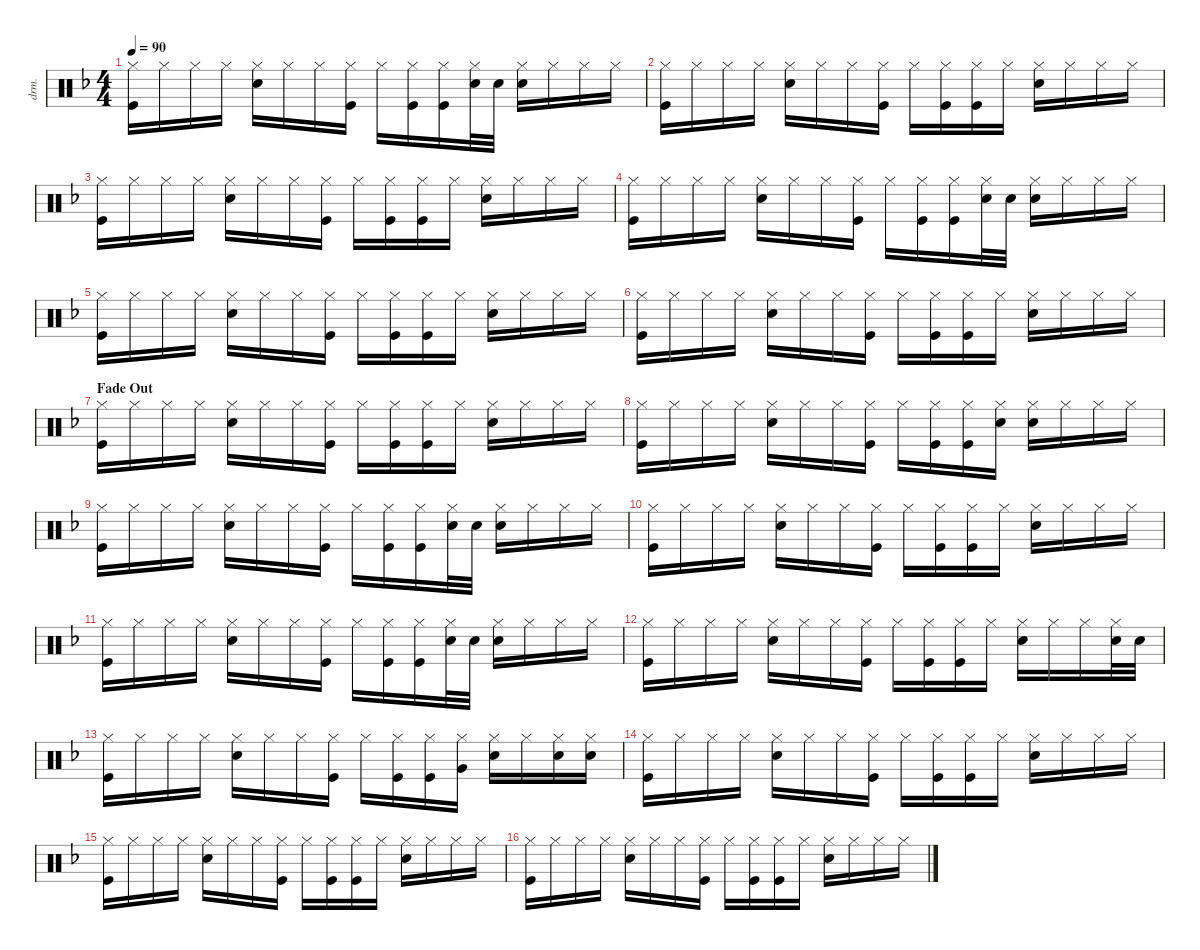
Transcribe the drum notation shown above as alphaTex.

\defaultSystemsLayout 4
\hideDynamics
\bracketExtendMode nobrackets
\track ("Drumkit" "drm.") {instrument percussion}
\staff {score}
\articulation defaults
\ts (4 4)
\tempo 90
\clef neutral
\ks f
("Hi-Hat (closed)"{acc forcenatural} "Kick (hit)"{acc forcenatural}).16{dy mf} "Hi-Hat (closed)"{acc forcenatural}.16 "Hi-Hat (closed)"{acc forcenatural}.16 "Hi-Hat (closed)"{acc forcenatural}.16 ("Hi-Hat (closed)"{acc forcenatural} "Snare (hit) 2"{acc forcenatural}).16 "Hi-Hat (closed)"{acc forcenatural}.16 "Hi-Hat (closed)"{acc forcenatural}.16 ("Hi-Hat (closed)"{acc forcenatural} "Kick (hit)"{acc forcenatural}).16 "Hi-Hat (closed)"{acc forcenatural}.16 ("Hi-Hat (closed)"{acc forcenatural} "Kick (hit)"{acc forcenatural}).16 ("Hi-Hat (closed)"{acc forcenatural} "Kick (hit)"{acc forcenatural}).16 ("Hi-Hat (closed)"{acc forcenatural} "Snare (hit) 2"{acc forcenatural}).32 "Snare (hit) 2"{acc forcenatural}.32 ("Hi-Hat (closed)"{acc forcenatural} "Snare (hit) 2"{acc forcenatural}).16 "Hi-Hat (closed)"{acc forcenatural}.16 "Hi-Hat (closed)"{acc forcenatural}.16 "Hi-Hat (closed)"{acc forcenatural}.16 |
("Hi-Hat (closed)"{acc forcenatural} "Kick (hit)"{acc forcenatural}).16 "Hi-Hat (closed)"{acc forcenatural}.16 "Hi-Hat (closed)"{acc forcenatural}.16 "Hi-Hat (closed)"{acc forcenatural}.16 ("Hi-Hat (closed)"{acc forcenatural} "Snare (hit) 2"{acc forcenatural}).16 "Hi-Hat (closed)"{acc forcenatural}.16 "Hi-Hat (closed)"{acc forcenatural}.16 ("Hi-Hat (closed)"{acc forcenatural} "Kick (hit)"{acc forcenatural}).16 "Hi-Hat (closed)"{acc forcenatural}.16 ("Hi-Hat (closed)"{acc forcenatural} "Kick (hit)"{acc forcenatural}).16 ("Hi-Hat (closed)"{acc forcenatural} "Kick (hit)"{acc forcenatural}).16 "Hi-Hat (closed)"{acc forcenatural}.16 ("Hi-Hat (closed)"{acc forcenatural} "Snare (hit) 2"{acc forcenatural}).16 "Hi-Hat (closed)"{acc forcenatural}.16 "Hi-Hat (closed)"{acc forcenatural}.16 "Hi-Hat (closed)"{acc forcenatural}.16 |
("Hi-Hat (closed)"{acc forcenatural} "Kick (hit)"{acc forcenatural}).16 "Hi-Hat (closed)"{acc forcenatural}.16 "Hi-Hat (closed)"{acc forcenatural}.16 "Hi-Hat (closed)"{acc forcenatural}.16 ("Hi-Hat (closed)"{acc forcenatural} "Snare (hit) 2"{acc forcenatural}).16 "Hi-Hat (closed)"{acc forcenatural}.16 "Hi-Hat (closed)"{acc forcenatural}.16 ("Hi-Hat (closed)"{acc forcenatural} "Kick (hit)"{acc forcenatural}).16 "Hi-Hat (closed)"{acc forcenatural}.16 ("Hi-Hat (closed)"{acc forcenatural} "Kick (hit)"{acc forcenatural}).16 ("Hi-Hat (closed)"{acc forcenatural} "Kick (hit)"{acc forcenatural}).16 "Hi-Hat (closed)"{acc forcenatural}.16 ("Hi-Hat (closed)"{acc forcenatural} "Snare (hit) 2"{acc forcenatural}).16 "Hi-Hat (closed)"{acc forcenatural}.16 "Hi-Hat (closed)"{acc forcenatural}.16 "Hi-Hat (closed)"{acc forcenatural}.16 |
("Hi-Hat (closed)"{acc forcenatural} "Kick (hit)"{acc forcenatural}).16 "Hi-Hat (closed)"{acc forcenatural}.16 "Hi-Hat (closed)"{acc forcenatural}.16 "Hi-Hat (closed)"{acc forcenatural}.16 ("Hi-Hat (closed)"{acc forcenatural} "Snare (hit) 2"{acc forcenatural}).16 "Hi-Hat (closed)"{acc forcenatural}.16 "Hi-Hat (closed)"{acc forcenatural}.16 ("Hi-Hat (closed)"{acc forcenatural} "Kick (hit)"{acc forcenatural}).16 "Hi-Hat (closed)"{acc forcenatural}.16 ("Hi-Hat (closed)"{acc forcenatural} "Kick (hit)"{acc forcenatural}).16 ("Hi-Hat (closed)"{acc forcenatural} "Kick (hit)"{acc forcenatural}).16 ("Hi-Hat (closed)"{acc forcenatural} "Snare (hit) 2"{acc forcenatural}).32 "Snare (hit) 2"{acc forcenatural}.32 ("Hi-Hat (closed)"{acc forcenatural} "Snare (hit) 2"{acc forcenatural}).16 "Hi-Hat (closed)"{acc forcenatural}.16 "Hi-Hat (closed)"{acc forcenatural}.16 "Hi-Hat (closed)"{acc forcenatural}.16 |
("Hi-Hat (closed)"{acc forcenatural} "Kick (hit)"{acc forcenatural}).16 "Hi-Hat (closed)"{acc forcenatural}.16 "Hi-Hat (closed)"{acc forcenatural}.16 "Hi-Hat (closed)"{acc forcenatural}.16 ("Hi-Hat (closed)"{acc forcenatural} "Snare (hit) 2"{acc forcenatural}).16 "Hi-Hat (closed)"{acc forcenatural}.16 "Hi-Hat (closed)"{acc forcenatural}.16 ("Hi-Hat (closed)"{acc forcenatural} "Kick (hit)"{acc forcenatural}).16 "Hi-Hat (closed)"{acc forcenatural}.16 ("Hi-Hat (closed)"{acc forcenatural} "Kick (hit)"{acc forcenatural}).16 ("Hi-Hat (closed)"{acc forcenatural} "Kick (hit)"{acc forcenatural}).16 "Hi-Hat (closed)"{acc forcenatural}.16 ("Hi-Hat (closed)"{acc forcenatural} "Snare (hit) 2"{acc forcenatural}).16 "Hi-Hat (closed)"{acc forcenatural}.16 "Hi-Hat (closed)"{acc forcenatural}.16 "Hi-Hat (closed)"{acc forcenatural}.16 |
("Hi-Hat (closed)"{acc forcenatural} "Kick (hit)"{acc forcenatural}).16 "Hi-Hat (closed)"{acc forcenatural}.16 "Hi-Hat (closed)"{acc forcenatural}.16 "Hi-Hat (closed)"{acc forcenatural}.16 ("Hi-Hat (closed)"{acc forcenatural} "Snare (hit) 2"{acc forcenatural}).16 "Hi-Hat (closed)"{acc forcenatural}.16 "Hi-Hat (closed)"{acc forcenatural}.16 ("Hi-Hat (closed)"{acc forcenatural} "Kick (hit)"{acc forcenatural}).16 "Hi-Hat (closed)"{acc forcenatural}.16 ("Hi-Hat (closed)"{acc forcenatural} "Kick (hit)"{acc forcenatural}).16 ("Hi-Hat (closed)"{acc forcenatural} "Kick (hit)"{acc forcenatural}).16 "Hi-Hat (closed)"{acc forcenatural}.16 ("Hi-Hat (closed)"{acc forcenatural} "Snare (hit) 2"{acc forcenatural}).16 "Hi-Hat (closed)"{acc forcenatural}.16 "Hi-Hat (closed)"{acc forcenatural}.16 "Hi-Hat (closed)"{acc forcenatural}.16 |
\section ("" "Fade Out")
("Hi-Hat (closed)"{acc forcenatural} "Kick (hit)"{acc forcenatural}).16 "Hi-Hat (closed)"{acc forcenatural}.16 "Hi-Hat (closed)"{acc forcenatural}.16 "Hi-Hat (closed)"{acc forcenatural}.16 ("Hi-Hat (closed)"{acc forcenatural} "Snare (hit) 2"{acc forcenatural}).16 "Hi-Hat (closed)"{acc forcenatural}.16 "Hi-Hat (closed)"{acc forcenatural}.16 ("Hi-Hat (closed)"{acc forcenatural} "Kick (hit)"{acc forcenatural}).16 "Hi-Hat (closed)"{acc forcenatural}.16 ("Hi-Hat (closed)"{acc forcenatural} "Kick (hit)"{acc forcenatural}).16 ("Hi-Hat (closed)"{acc forcenatural} "Kick (hit)"{acc forcenatural}).16 "Hi-Hat (closed)"{acc forcenatural}.16 ("Hi-Hat (closed)"{acc forcenatural} "Snare (hit) 2"{acc forcenatural}).16 "Hi-Hat (closed)"{acc forcenatural}.16 "Hi-Hat (closed)"{acc forcenatural}.16 "Hi-Hat (closed)"{acc forcenatural}.16 |
("Hi-Hat (closed)"{acc forcenatural} "Kick (hit)"{acc forcenatural}).16 "Hi-Hat (closed)"{acc forcenatural}.16 "Hi-Hat (closed)"{acc forcenatural}.16 "Hi-Hat (closed)"{acc forcenatural}.16 ("Hi-Hat (closed)"{acc forcenatural} "Snare (hit) 2"{acc forcenatural}).16 "Hi-Hat (closed)"{acc forcenatural}.16 "Hi-Hat (closed)"{acc forcenatural}.16 ("Hi-Hat (closed)"{acc forcenatural} "Kick (hit)"{acc forcenatural}).16 "Hi-Hat (closed)"{acc forcenatural}.16 ("Hi-Hat (closed)"{acc forcenatural} "Kick (hit)"{acc forcenatural}).16 ("Hi-Hat (closed)"{acc forcenatural} "Kick (hit)"{acc forcenatural}).16 ("Hi-Hat (closed)"{acc forcenatural} "Snare (hit) 2"{acc forcenatural}).16 ("Hi-Hat (closed)"{acc forcenatural} "Snare (hit) 2"{acc forcenatural}).16 "Hi-Hat (closed)"{acc forcenatural}.16 "Hi-Hat (closed)"{acc forcenatural}.16 "Hi-Hat (closed)"{acc forcenatural}.16 |
("Hi-Hat (closed)"{acc forcenatural} "Kick (hit)"{acc forcenatural}).16 "Hi-Hat (closed)"{acc forcenatural}.16 "Hi-Hat (closed)"{acc forcenatural}.16 "Hi-Hat (closed)"{acc forcenatural}.16 ("Hi-Hat (closed)"{acc forcenatural} "Snare (hit) 2"{acc forcenatural}).16 "Hi-Hat (closed)"{acc forcenatural}.16 "Hi-Hat (closed)"{acc forcenatural}.16 ("Hi-Hat (closed)"{acc forcenatural} "Kick (hit)"{acc forcenatural}).16 "Hi-Hat (closed)"{acc forcenatural}.16 ("Hi-Hat (closed)"{acc forcenatural} "Kick (hit)"{acc forcenatural}).16 ("Hi-Hat (closed)"{acc forcenatural} "Kick (hit)"{acc forcenatural}).16 ("Hi-Hat (closed)"{acc forcenatural} "Snare (hit) 2"{acc forcenatural}).32 "Snare (hit) 2"{acc forcenatural}.32 ("Hi-Hat (closed)"{acc forcenatural} "Snare (hit) 2"{acc forcenatural}).16 "Hi-Hat (closed)"{acc forcenatural}.16 "Hi-Hat (closed)"{acc forcenatural}.16 "Hi-Hat (closed)"{acc forcenatural}.16 |
("Hi-Hat (closed)"{acc forcenatural} "Kick (hit)"{acc forcenatural}).16 "Hi-Hat (closed)"{acc forcenatural}.16 "Hi-Hat (closed)"{acc forcenatural}.16 "Hi-Hat (closed)"{acc forcenatural}.16 ("Hi-Hat (closed)"{acc forcenatural} "Snare (hit) 2"{acc forcenatural}).16 "Hi-Hat (closed)"{acc forcenatural}.16 "Hi-Hat (closed)"{acc forcenatural}.16 ("Hi-Hat (closed)"{acc forcenatural} "Kick (hit)"{acc forcenatural}).16 "Hi-Hat (closed)"{acc forcenatural}.16 ("Hi-Hat (closed)"{acc forcenatural} "Kick (hit)"{acc forcenatural}).16 ("Hi-Hat (closed)"{acc forcenatural} "Kick (hit)"{acc forcenatural}).16 "Hi-Hat (closed)"{acc forcenatural}.16 ("Hi-Hat (closed)"{acc forcenatural} "Snare (hit) 2"{acc forcenatural}).16 "Hi-Hat (closed)"{acc forcenatural}.16 "Hi-Hat (closed)"{acc forcenatural}.16 "Hi-Hat (closed)"{acc forcenatural}.16 |
("Hi-Hat (closed)"{acc forcenatural} "Kick (hit)"{acc forcenatural}).16 "Hi-Hat (closed)"{acc forcenatural}.16 "Hi-Hat (closed)"{acc forcenatural}.16 "Hi-Hat (closed)"{acc forcenatural}.16 ("Hi-Hat (closed)"{acc forcenatural} "Snare (hit) 2"{acc forcenatural}).16 "Hi-Hat (closed)"{acc forcenatural}.16 "Hi-Hat (closed)"{acc forcenatural}.16 ("Hi-Hat (closed)"{acc forcenatural} "Kick (hit)"{acc forcenatural}).16 "Hi-Hat (closed)"{acc forcenatural}.16 ("Hi-Hat (closed)"{acc forcenatural} "Kick (hit)"{acc forcenatural}).16 ("Hi-Hat (closed)"{acc forcenatural} "Kick (hit)"{acc forcenatural}).16 ("Hi-Hat (closed)"{acc forcenatural} "Snare (hit) 2"{acc forcenatural}).32 "Snare (hit) 2"{acc forcenatural}.32 ("Hi-Hat (closed)"{acc forcenatural} "Snare (hit) 2"{acc forcenatural}).16 "Hi-Hat (closed)"{acc forcenatural}.16 "Hi-Hat (closed)"{acc forcenatural}.16 "Hi-Hat (closed)"{acc forcenatural}.16 |
("Hi-Hat (closed)"{acc forcenatural} "Kick (hit)"{acc forcenatural}).16 "Hi-Hat (closed)"{acc forcenatural}.16 "Hi-Hat (closed)"{acc forcenatural}.16 "Hi-Hat (closed)"{acc forcenatural}.16 ("Hi-Hat (closed)"{acc forcenatural} "Snare (hit) 2"{acc forcenatural}).16 "Hi-Hat (closed)"{acc forcenatural}.16 "Hi-Hat (closed)"{acc forcenatural}.16 ("Hi-Hat (closed)"{acc forcenatural} "Kick (hit)"{acc forcenatural}).16 "Hi-Hat (closed)"{acc forcenatural}.16 ("Hi-Hat (closed)"{acc forcenatural} "Kick (hit)"{acc forcenatural}).16 ("Hi-Hat (closed)"{acc forcenatural} "Kick (hit)"{acc forcenatural}).16 "Hi-Hat (closed)"{acc forcenatural}.16 ("Hi-Hat (closed)"{acc forcenatural} "Snare (hit) 2"{acc forcenatural}).16 "Hi-Hat (closed)"{acc forcenatural}.16 "Hi-Hat (closed)"{acc forcenatural}.16 ("Hi-Hat (closed)"{acc forcenatural} "Snare (hit) 2"{acc forcenatural}).32 "Snare (hit) 2"{acc forcenatural}.32 |
("Hi-Hat (closed)"{acc forcenatural} "Kick (hit)"{acc forcenatural}).16 "Hi-Hat (closed)"{acc forcenatural}.16 "Hi-Hat (closed)"{acc forcenatural}.16 "Hi-Hat (closed)"{acc forcenatural}.16 ("Hi-Hat (closed)"{acc forcenatural} "Snare (hit) 2"{acc forcenatural}).16 "Hi-Hat (closed)"{acc forcenatural}.16 "Hi-Hat (closed)"{acc forcenatural}.16 ("Hi-Hat (closed)"{acc forcenatural} "Kick (hit)"{acc forcenatural}).16 "Hi-Hat (closed)"{acc forcenatural}.16 ("Hi-Hat (closed)"{acc forcenatural} "Kick (hit)"{acc forcenatural}).16 ("Hi-Hat (closed)"{acc forcenatural} "Kick (hit)"{acc forcenatural}).16 ("Hi-Hat (closed)"{acc forcenatural} "Very Low Tom (hit)"{acc forcenatural}).16 ("Hi-Hat (closed)"{acc forcenatural} "Snare (hit) 2"{acc forcenatural}).16 "Hi-Hat (closed)"{acc forcenatural}.16 ("Hi-Hat (closed)"{acc forcenatural} "Snare (hit) 2"{acc forcenatural}).16 ("Hi-Hat (closed)"{acc forcenatural} "Snare (hit) 2"{acc forcenatural}).16 |
("Hi-Hat (closed)"{acc forcenatural} "Kick (hit)"{acc forcenatural}).16 "Hi-Hat (closed)"{acc forcenatural}.16 "Hi-Hat (closed)"{acc forcenatural}.16 "Hi-Hat (closed)"{acc forcenatural}.16 ("Hi-Hat (closed)"{acc forcenatural} "Snare (hit) 2"{acc forcenatural}).16 "Hi-Hat (closed)"{acc forcenatural}.16 "Hi-Hat (closed)"{acc forcenatural}.16 ("Hi-Hat (closed)"{acc forcenatural} "Kick (hit)"{acc forcenatural}).16 "Hi-Hat (closed)"{acc forcenatural}.16 ("Hi-Hat (closed)"{acc forcenatural} "Kick (hit)"{acc forcenatural}).16 ("Hi-Hat (closed)"{acc forcenatural} "Kick (hit)"{acc forcenatural}).16 "Hi-Hat (closed)"{acc forcenatural}.16 ("Hi-Hat (closed)"{acc forcenatural} "Snare (hit) 2"{acc forcenatural}).16 "Hi-Hat (closed)"{acc forcenatural}.16 "Hi-Hat (closed)"{acc forcenatural}.16 "Hi-Hat (closed)"{acc forcenatural}.16 |
("Hi-Hat (closed)"{acc forcenatural} "Kick (hit)"{acc forcenatural}).16 "Hi-Hat (closed)"{acc forcenatural}.16 "Hi-Hat (closed)"{acc forcenatural}.16 "Hi-Hat (closed)"{acc forcenatural}.16 ("Hi-Hat (closed)"{acc forcenatural} "Snare (hit) 2"{acc forcenatural}).16 "Hi-Hat (closed)"{acc forcenatural}.16 "Hi-Hat (closed)"{acc forcenatural}.16 ("Hi-Hat (closed)"{acc forcenatural} "Kick (hit)"{acc forcenatural}).16 "Hi-Hat (closed)"{acc forcenatural}.16 ("Hi-Hat (closed)"{acc forcenatural} "Kick (hit)"{acc forcenatural}).16 ("Hi-Hat (closed)"{acc forcenatural} "Kick (hit)"{acc forcenatural}).16 "Hi-Hat (closed)"{acc forcenatural}.16 ("Hi-Hat (closed)"{acc forcenatural} "Snare (hit) 2"{acc forcenatural}).16 "Hi-Hat (closed)"{acc forcenatural}.16 "Hi-Hat (closed)"{acc forcenatural}.16 "Hi-Hat (closed)"{acc forcenatural}.16 |
("Hi-Hat (closed)"{acc forcenatural} "Kick (hit)"{acc forcenatural}).16 "Hi-Hat (closed)"{acc forcenatural}.16 "Hi-Hat (closed)"{acc forcenatural}.16 "Hi-Hat (closed)"{acc forcenatural}.16 ("Hi-Hat (closed)"{acc forcenatural} "Snare (hit) 2"{acc forcenatural}).16 "Hi-Hat (closed)"{acc forcenatural}.16 "Hi-Hat (closed)"{acc forcenatural}.16 ("Hi-Hat (closed)"{acc forcenatural} "Kick (hit)"{acc forcenatural}).16 "Hi-Hat (closed)"{acc forcenatural}.16 ("Hi-Hat (closed)"{acc forcenatural} "Kick (hit)"{acc forcenatural}).16 ("Hi-Hat (closed)"{acc forcenatural} "Kick (hit)"{acc forcenatural}).16 "Hi-Hat (closed)"{acc forcenatural}.16 ("Hi-Hat (closed)"{acc forcenatural} "Snare (hit) 2"{acc forcenatural}).16 "Hi-Hat (closed)"{acc forcenatural}.16 "Hi-Hat (closed)"{acc forcenatural}.16 "Hi-Hat (closed)"{acc forcenatural}.16
